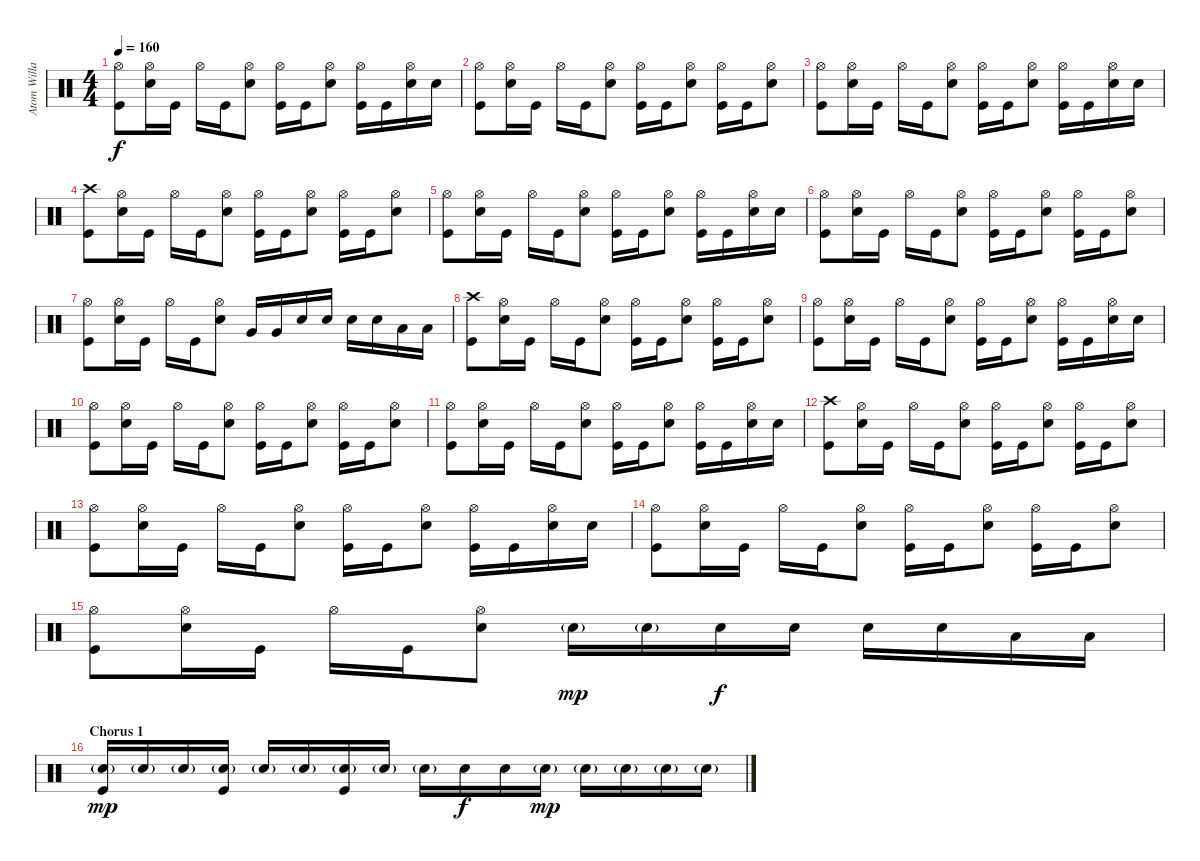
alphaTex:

\track ("Atom Willard - Drums" "Atom Willa") {instrument percussion}
\staff {score}
\articulation defaults
\ts (4 4)
\tempo 160
\clef neutral
\ks c
("Hi-Hat (open)" "Kick (hit)").8{dy f} ("Hi-Hat (open)" "Electric Snare (hit)").16 "Kick (hit)".16 "Hi-Hat (open)".16 "Kick (hit)".16 ("Hi-Hat (open)" "Electric Snare (hit)").8 ("Hi-Hat (open)" "Kick (hit)").16 "Kick (hit)".16 ("Hi-Hat (open)" "Electric Snare (hit)").8 ("Hi-Hat (open)" "Kick (hit)").16 "Kick (hit)".16 ("Hi-Hat (open)" "Electric Snare (hit)").16 "Electric Snare (hit)".16 |
("Hi-Hat (open)" "Kick (hit)").8 ("Hi-Hat (open)" "Electric Snare (hit)").16 "Kick (hit)".16 "Hi-Hat (open)".16 "Kick (hit)".16 ("Hi-Hat (open)" "Electric Snare (hit)").8 ("Hi-Hat (open)" "Kick (hit)").16 "Kick (hit)".16 ("Hi-Hat (open)" "Electric Snare (hit)").8 ("Hi-Hat (open)" "Kick (hit)").16 "Kick (hit)".16 ("Hi-Hat (open)" "Electric Snare (hit)").8 |
("Hi-Hat (open)" "Kick (hit)").8 ("Hi-Hat (open)" "Electric Snare (hit)").16 "Kick (hit)".16 "Hi-Hat (open)".16 "Kick (hit)".16 ("Hi-Hat (open)" "Electric Snare (hit)").8 ("Hi-Hat (open)" "Kick (hit)").16 "Kick (hit)".16 ("Hi-Hat (open)" "Electric Snare (hit)").8 ("Hi-Hat (open)" "Kick (hit)").16 "Kick (hit)".16 ("Hi-Hat (open)" "Electric Snare (hit)").16 "Electric Snare (hit)".16 |
("Crash high (hit)" "Kick (hit)").8 ("Hi-Hat (open)" "Electric Snare (hit)").16 "Kick (hit)".16 "Hi-Hat (open)".16 "Kick (hit)".16 ("Hi-Hat (open)" "Electric Snare (hit)").8 ("Hi-Hat (open)" "Kick (hit)").16 "Kick (hit)".16 ("Hi-Hat (open)" "Electric Snare (hit)").8 ("Hi-Hat (open)" "Kick (hit)").16 "Kick (hit)".16 ("Hi-Hat (open)" "Electric Snare (hit)").8 |
("Hi-Hat (open)" "Kick (hit)").8 ("Hi-Hat (open)" "Electric Snare (hit)").16 "Kick (hit)".16 "Hi-Hat (open)".16 "Kick (hit)".16 ("Hi-Hat (open)" "Electric Snare (hit)").8 ("Hi-Hat (open)" "Kick (hit)").16 "Kick (hit)".16 ("Hi-Hat (open)" "Electric Snare (hit)").8 ("Hi-Hat (open)" "Kick (hit)").16 "Kick (hit)".16 ("Hi-Hat (open)" "Electric Snare (hit)").16 "Electric Snare (hit)".16 |
("Hi-Hat (open)" "Kick (hit)").8 ("Hi-Hat (open)" "Electric Snare (hit)").16 "Kick (hit)".16 "Hi-Hat (open)".16 "Kick (hit)".16 ("Hi-Hat (open)" "Electric Snare (hit)").8 ("Hi-Hat (open)" "Kick (hit)").16 "Kick (hit)".16 ("Hi-Hat (open)" "Electric Snare (hit)").8 ("Hi-Hat (open)" "Kick (hit)").16 "Kick (hit)".16 ("Hi-Hat (open)" "Electric Snare (hit)").8 |
("Hi-Hat (open)" "Kick (hit)").8 ("Hi-Hat (open)" "Electric Snare (hit)").16 "Kick (hit)".16 "Hi-Hat (open)".16 "Kick (hit)".16 ("Hi-Hat (open)" "Electric Snare (hit)").8 "Very Low Tom (hit)".16 "Very Low Tom (hit)".16 "Electric Snare (hit)".16 "Electric Snare (hit)".16 "Electric Snare (hit)".16 "Electric Snare (hit)".16 "Low Floor Tom (hit)".16 "Low Floor Tom (hit)".16 |
("Crash high (hit)" "Kick (hit)").8 ("Hi-Hat (open)" "Electric Snare (hit)").16 "Kick (hit)".16 "Hi-Hat (open)".16 "Kick (hit)".16 ("Hi-Hat (open)" "Electric Snare (hit)").8 ("Hi-Hat (open)" "Kick (hit)").16 "Kick (hit)".16 ("Hi-Hat (open)" "Electric Snare (hit)").8 ("Hi-Hat (open)" "Kick (hit)").16 "Kick (hit)".16 ("Hi-Hat (open)" "Electric Snare (hit)").8 |
("Hi-Hat (open)" "Kick (hit)").8 ("Hi-Hat (open)" "Electric Snare (hit)").16 "Kick (hit)".16 "Hi-Hat (open)".16 "Kick (hit)".16 ("Hi-Hat (open)" "Electric Snare (hit)").8 ("Hi-Hat (open)" "Kick (hit)").16 "Kick (hit)".16 ("Hi-Hat (open)" "Electric Snare (hit)").8 ("Hi-Hat (open)" "Kick (hit)").16 "Kick (hit)".16 ("Hi-Hat (open)" "Electric Snare (hit)").16 "Electric Snare (hit)".16 |
("Hi-Hat (open)" "Kick (hit)").8 ("Hi-Hat (open)" "Electric Snare (hit)").16 "Kick (hit)".16 "Hi-Hat (open)".16 "Kick (hit)".16 ("Hi-Hat (open)" "Electric Snare (hit)").8 ("Hi-Hat (open)" "Kick (hit)").16 "Kick (hit)".16 ("Hi-Hat (open)" "Electric Snare (hit)").8 ("Hi-Hat (open)" "Kick (hit)").16 "Kick (hit)".16 ("Hi-Hat (open)" "Electric Snare (hit)").8 |
("Hi-Hat (open)" "Kick (hit)").8 ("Hi-Hat (open)" "Electric Snare (hit)").16 "Kick (hit)".16 "Hi-Hat (open)".16 "Kick (hit)".16 ("Hi-Hat (open)" "Electric Snare (hit)").8 ("Hi-Hat (open)" "Kick (hit)").16 "Kick (hit)".16 ("Hi-Hat (open)" "Electric Snare (hit)").8 ("Hi-Hat (open)" "Kick (hit)").16 "Kick (hit)".16 ("Hi-Hat (open)" "Electric Snare (hit)").16 "Electric Snare (hit)".16 |
("Crash high (hit)" "Kick (hit)").8 ("Hi-Hat (open)" "Electric Snare (hit)").16 "Kick (hit)".16 "Hi-Hat (open)".16 "Kick (hit)".16 ("Hi-Hat (open)" "Electric Snare (hit)").8 ("Hi-Hat (open)" "Kick (hit)").16 "Kick (hit)".16 ("Hi-Hat (open)" "Electric Snare (hit)").8 ("Hi-Hat (open)" "Kick (hit)").16 "Kick (hit)".16 ("Hi-Hat (open)" "Electric Snare (hit)").8 |
("Hi-Hat (open)" "Kick (hit)").8 ("Hi-Hat (open)" "Electric Snare (hit)").16 "Kick (hit)".16 "Hi-Hat (open)".16 "Kick (hit)".16 ("Hi-Hat (open)" "Electric Snare (hit)").8 ("Hi-Hat (open)" "Kick (hit)").16 "Kick (hit)".16 ("Hi-Hat (open)" "Electric Snare (hit)").8 ("Hi-Hat (open)" "Kick (hit)").16 "Kick (hit)".16 ("Hi-Hat (open)" "Electric Snare (hit)").16 "Electric Snare (hit)".16 |
("Hi-Hat (open)" "Kick (hit)").8 ("Hi-Hat (open)" "Electric Snare (hit)").16 "Kick (hit)".16 "Hi-Hat (open)".16 "Kick (hit)".16 ("Hi-Hat (open)" "Electric Snare (hit)").8 ("Hi-Hat (open)" "Kick (hit)").16 "Kick (hit)".16 ("Hi-Hat (open)" "Electric Snare (hit)").8 ("Hi-Hat (open)" "Kick (hit)").16 "Kick (hit)".16 ("Hi-Hat (open)" "Electric Snare (hit)").8 |
("Hi-Hat (open)" "Kick (hit)").8 ("Hi-Hat (open)" "Electric Snare (hit)").16 "Kick (hit)".16 "Hi-Hat (open)".16 "Kick (hit)".16 ("Hi-Hat (open)" "Electric Snare (hit)").8 "Electric Snare (hit)"{g}.16{dy mp} "Electric Snare (hit)"{g}.16 "Electric Snare (hit)".16{dy f} "Electric Snare (hit)".16 "Electric Snare (hit)".16 "Electric Snare (hit)".16 "Low Floor Tom (hit)".16 "Low Floor Tom (hit)".16 |
\section ("" "Chorus 1")
("Electric Snare (hit)"{g} "Kick (hit)").16{dy mp} "Electric Snare (hit)"{g}.16 "Electric Snare (hit)"{g}.16 ("Electric Snare (hit)"{g} "Kick (hit)").16 "Electric Snare (hit)"{g}.16 "Electric Snare (hit)"{g}.16 ("Electric Snare (hit)"{g} "Kick (hit)").16 "Electric Snare (hit)"{g}.16 "Electric Snare (hit)"{g}.16 "Electric Snare (hit)".16{dy f} "Electric Snare (hit)".16 "Electric Snare (hit)"{g}.16{dy mp} "Electric Snare (hit)"{g}.16 "Electric Snare (hit)"{g}.16 "Electric Snare (hit)"{g}.16 "Electric Snare (hit)"{g}.16
